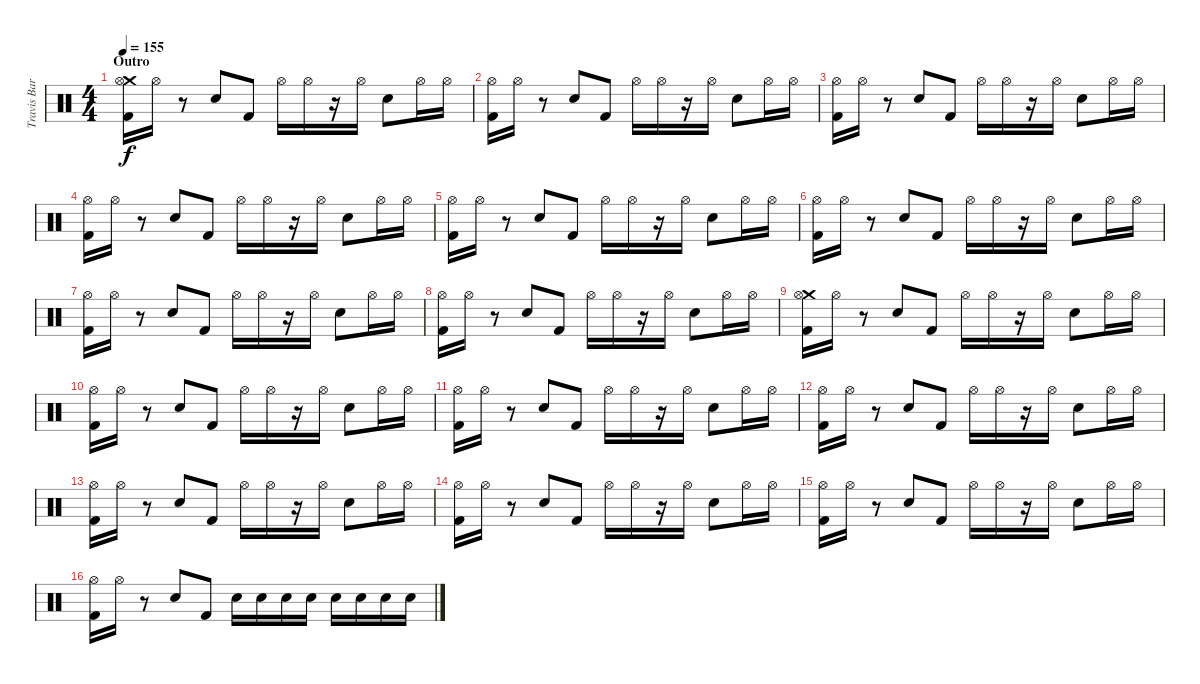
\track ("Travis Barker Drums" "Travis Bar") {instrument percussion}
\staff {score}
\articulation defaults
\ts (4 4)
\section ("" "Outro")
\tempo 155
\clef neutral
\ks c
("Crash medium (hit)" "Hi-Hat (open)" "Kick (hit) 2").16{dy f} "Hi-Hat (open)".16 r.8 "Electric Snare (hit)".8 "Kick (hit) 2".8 "Hi-Hat (open)".16 "Hi-Hat (open)".16 r.16 "Hi-Hat (open)".16 "Electric Snare (hit)".8 "Hi-Hat (open)".16 "Hi-Hat (open)".16 |
("Hi-Hat (open)" "Kick (hit) 2").16 "Hi-Hat (open)".16 r.8 "Electric Snare (hit)".8 "Kick (hit) 2".8 "Hi-Hat (open)".16 "Hi-Hat (open)".16 r.16 "Hi-Hat (open)".16 "Electric Snare (hit)".8 "Hi-Hat (open)".16 "Hi-Hat (open)".16 |
("Hi-Hat (open)" "Kick (hit) 2").16 "Hi-Hat (open)".16 r.8 "Electric Snare (hit)".8 "Kick (hit) 2".8 "Hi-Hat (open)".16 "Hi-Hat (open)".16 r.16 "Hi-Hat (open)".16 "Electric Snare (hit)".8 "Hi-Hat (open)".16 "Hi-Hat (open)".16 |
("Hi-Hat (open)" "Kick (hit) 2").16 "Hi-Hat (open)".16 r.8 "Electric Snare (hit)".8 "Kick (hit) 2".8 "Hi-Hat (open)".16 "Hi-Hat (open)".16 r.16 "Hi-Hat (open)".16 "Electric Snare (hit)".8 "Hi-Hat (open)".16 "Hi-Hat (open)".16 |
("Hi-Hat (open)" "Kick (hit) 2").16 "Hi-Hat (open)".16 r.8 "Electric Snare (hit)".8 "Kick (hit) 2".8 "Hi-Hat (open)".16 "Hi-Hat (open)".16 r.16 "Hi-Hat (open)".16 "Electric Snare (hit)".8 "Hi-Hat (open)".16 "Hi-Hat (open)".16 |
("Hi-Hat (open)" "Kick (hit) 2").16 "Hi-Hat (open)".16 r.8 "Electric Snare (hit)".8 "Kick (hit) 2".8 "Hi-Hat (open)".16 "Hi-Hat (open)".16 r.16 "Hi-Hat (open)".16 "Electric Snare (hit)".8 "Hi-Hat (open)".16 "Hi-Hat (open)".16 |
("Hi-Hat (open)" "Kick (hit) 2").16 "Hi-Hat (open)".16 r.8 "Electric Snare (hit)".8 "Kick (hit) 2".8 "Hi-Hat (open)".16 "Hi-Hat (open)".16 r.16 "Hi-Hat (open)".16 "Electric Snare (hit)".8 "Hi-Hat (open)".16 "Hi-Hat (open)".16 |
("Hi-Hat (open)" "Kick (hit) 2").16 "Hi-Hat (open)".16 r.8 "Electric Snare (hit)".8 "Kick (hit) 2".8 "Hi-Hat (open)".16 "Hi-Hat (open)".16 r.16 "Hi-Hat (open)".16 "Electric Snare (hit)".8 "Hi-Hat (open)".16 "Hi-Hat (open)".16 |
("Crash medium (hit)" "Hi-Hat (open)" "Kick (hit) 2").16 "Hi-Hat (open)".16 r.8 "Electric Snare (hit)".8 "Kick (hit) 2".8 "Hi-Hat (open)".16 "Hi-Hat (open)".16 r.16 "Hi-Hat (open)".16 "Electric Snare (hit)".8 "Hi-Hat (open)".16 "Hi-Hat (open)".16 |
("Hi-Hat (open)" "Kick (hit) 2").16 "Hi-Hat (open)".16 r.8 "Electric Snare (hit)".8 "Kick (hit) 2".8 "Hi-Hat (open)".16 "Hi-Hat (open)".16 r.16 "Hi-Hat (open)".16 "Electric Snare (hit)".8 "Hi-Hat (open)".16 "Hi-Hat (open)".16 |
("Hi-Hat (open)" "Kick (hit) 2").16 "Hi-Hat (open)".16 r.8 "Electric Snare (hit)".8 "Kick (hit) 2".8 "Hi-Hat (open)".16 "Hi-Hat (open)".16 r.16 "Hi-Hat (open)".16 "Electric Snare (hit)".8 "Hi-Hat (open)".16 "Hi-Hat (open)".16 |
("Hi-Hat (open)" "Kick (hit) 2").16 "Hi-Hat (open)".16 r.8 "Electric Snare (hit)".8 "Kick (hit) 2".8 "Hi-Hat (open)".16 "Hi-Hat (open)".16 r.16 "Hi-Hat (open)".16 "Electric Snare (hit)".8 "Hi-Hat (open)".16 "Hi-Hat (open)".16 |
("Hi-Hat (open)" "Kick (hit) 2").16 "Hi-Hat (open)".16 r.8 "Electric Snare (hit)".8 "Kick (hit) 2".8 "Hi-Hat (open)".16 "Hi-Hat (open)".16 r.16 "Hi-Hat (open)".16 "Electric Snare (hit)".8 "Hi-Hat (open)".16 "Hi-Hat (open)".16 |
("Hi-Hat (open)" "Kick (hit) 2").16 "Hi-Hat (open)".16 r.8 "Electric Snare (hit)".8 "Kick (hit) 2".8 "Hi-Hat (open)".16 "Hi-Hat (open)".16 r.16 "Hi-Hat (open)".16 "Electric Snare (hit)".8 "Hi-Hat (open)".16 "Hi-Hat (open)".16 |
("Hi-Hat (open)" "Kick (hit) 2").16 "Hi-Hat (open)".16 r.8 "Electric Snare (hit)".8 "Kick (hit) 2".8 "Hi-Hat (open)".16 "Hi-Hat (open)".16 r.16 "Hi-Hat (open)".16 "Electric Snare (hit)".8 "Hi-Hat (open)".16 "Hi-Hat (open)".16 |
("Hi-Hat (open)" "Kick (hit) 2").16 "Hi-Hat (open)".16 r.8 "Electric Snare (hit)".8 "Kick (hit) 2".8 "Electric Snare (hit)".16 "Electric Snare (hit)".16 "Electric Snare (hit)".16 "Electric Snare (hit)".16 "Electric Snare (hit)".16 "Electric Snare (hit)".16 "Electric Snare (hit)".16 "Electric Snare (hit)".16
